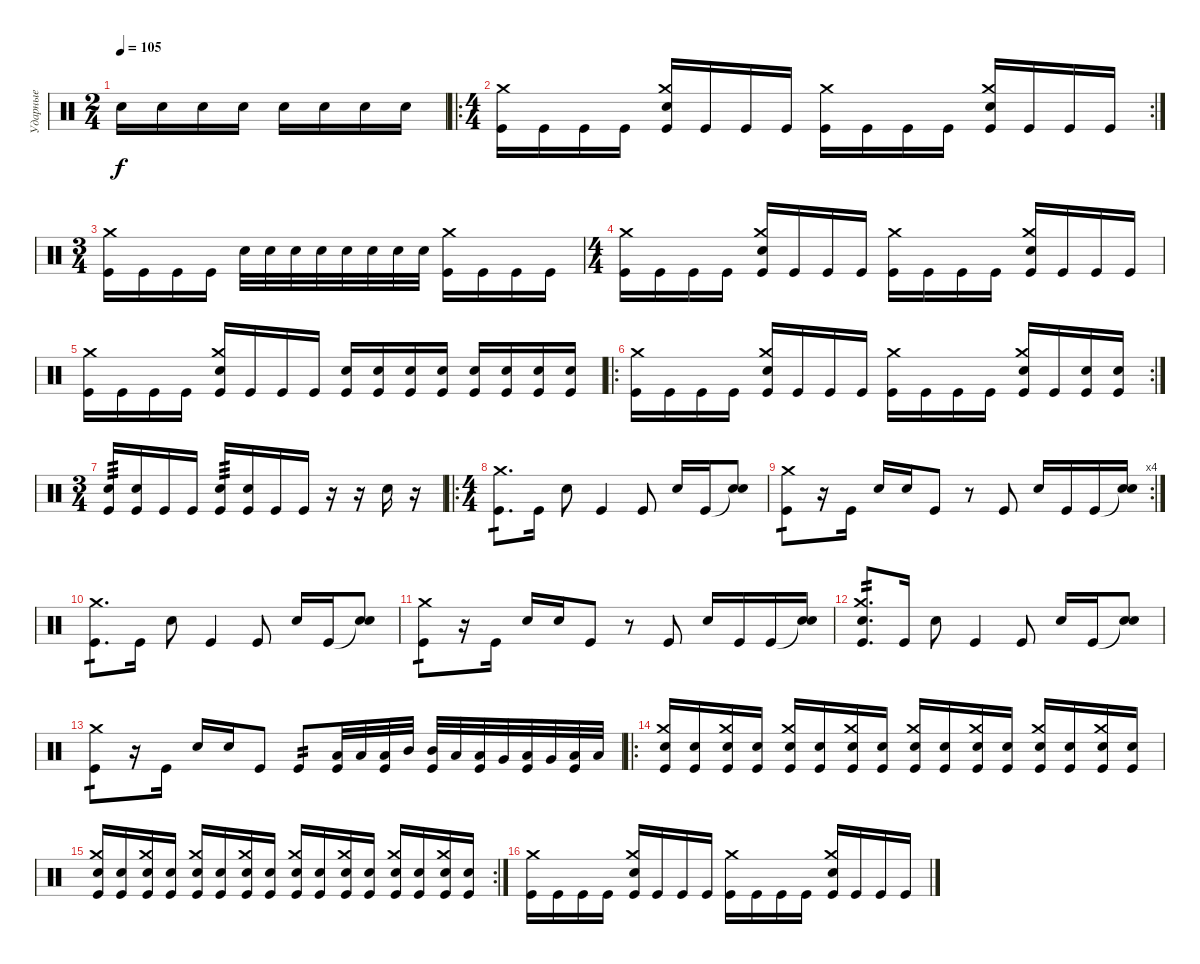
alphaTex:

\track ("Ударные" "Ударные") {instrument percussion}
\staff {score}
\articulation defaults
\ts (2 4)
\tempo 105
\clef neutral
\ks c "Electric Snare (hit)".16{dy f} "Electric Snare (hit)".16 "Electric Snare (hit)".16 "Electric Snare (hit)".16 "Electric Snare (hit)".16 "Electric Snare (hit)".16 "Electric Snare (hit)".16 "Electric Snare (hit)".16
|
\ro
\rc 2
\ts (4 4)
("Crash medium (hit)" "Kick (hit)").16 "Kick (hit)".16 "Kick (hit)".16 "Kick (hit)".16 ("Crash medium (hit)" "Electric Snare (hit)" "Kick (hit)").16 "Kick (hit)".16 "Kick (hit)".16 "Kick (hit)".16 ("Crash medium (hit)" "Kick (hit)").16 "Kick (hit)".16 "Kick (hit)".16 "Kick (hit)".16 ("Crash medium (hit)" "Electric Snare (hit)" "Kick (hit)").16 "Kick (hit)".16 "Kick (hit)".16 "Kick (hit)".16 |
\ts (3 4)
("Crash medium (hit)" "Kick (hit)").16 "Kick (hit)".16 "Kick (hit)".16 "Kick (hit)".16 "Electric Snare (hit)".32 "Electric Snare (hit)".32 "Electric Snare (hit)".32 "Electric Snare (hit)".32 "Snare (hit) 2".32 "Snare (hit) 2".32 "Snare (hit) 2".32 "Snare (hit) 2".32 ("Crash medium (hit)" "Kick (hit)").16 "Kick (hit)".16 "Kick (hit)".16 "Kick (hit)".16 |
\ts (4 4)
("Crash medium (hit)" "Kick (hit)").16 "Kick (hit)".16 "Kick (hit)".16 "Kick (hit)".16 ("Crash medium (hit)" "Electric Snare (hit)" "Kick (hit)").16 "Kick (hit)".16 "Kick (hit)".16 "Kick (hit)".16 ("Crash medium (hit)" "Kick (hit)").16 "Kick (hit)".16 "Kick (hit)".16 "Kick (hit)".16 ("Crash medium (hit)" "Electric Snare (hit)" "Kick (hit)").16 "Kick (hit)".16 "Kick (hit)".16 "Kick (hit)".16 |
("Crash medium (hit)" "Kick (hit)").16 "Kick (hit)".16 "Kick (hit)".16 "Kick (hit)".16 ("Crash medium (hit)" "Electric Snare (hit)" "Kick (hit)").16 "Kick (hit)".16 "Kick (hit)".16 "Kick (hit)".16 ("Electric Snare (hit)" "Kick (hit)").16 ("Electric Snare (hit)" "Kick (hit)").16 ("Electric Snare (hit)" "Kick (hit)").16 ("Electric Snare (hit)" "Kick (hit)").16 ("Electric Snare (hit)" "Kick (hit)").16 ("Electric Snare (hit)" "Kick (hit)").16 ("Electric Snare (hit)" "Kick (hit)").16 ("Electric Snare (hit)" "Kick (hit)").16 |
\ro
\rc 2
("Crash medium (hit)" "Kick (hit)").16 "Kick (hit)".16 "Kick (hit)".16 "Kick (hit)".16 ("Crash medium (hit)" "Electric Snare (hit)" "Kick (hit)").16 "Kick (hit)".16 "Kick (hit)".16 "Kick (hit)".16 ("Crash medium (hit)" "Kick (hit)").16 "Kick (hit)".16 "Kick (hit)".16 "Kick (hit)".16 ("Crash medium (hit)" "Electric Snare (hit)" "Kick (hit)").16 "Kick (hit)".16 ("Electric Snare (hit)" "Kick (hit)").16 ("Electric Snare (hit)" "Kick (hit)").16 |
\ts (3 4)
("Electric Snare (hit)" "Kick (hit)").16{tp 3} ("Electric Snare (hit)" "Kick (hit)").16 "Kick (hit)".16 "Kick (hit)".16 ("Electric Snare (hit)" "Kick (hit)").16{tp 3} ("Electric Snare (hit)" "Kick (hit)").16 "Kick (hit)".16 "Kick (hit)".16 r.16 r.16 "Electric Snare (hit)".16 r.16 |
\ro
\ts (4 4)
("Crash medium (hit)" "Kick (hit)").8{d tp 1} "Kick (hit)".16 "Electric Snare (hit)".8 "Kick (hit)".4 "Kick (hit)".8 "Electric Snare (hit)".16 "Kick (hit)".16 ("Snare (hit)"{t} "Electric Snare (hit)").8 |
\rc 4
("Crash medium (hit)" "Kick (hit)").8{tp 1} r.16 "Kick (hit)".16 "Electric Snare (hit)".16 "Electric Snare (hit)".16 "Kick (hit)".8 r.8 "Kick (hit)".8 "Electric Snare (hit)".16 "Kick (hit)".16 "Kick (hit)".16 ("Snare (hit)"{t} "Electric Snare (hit)").16 |
("Crash medium (hit)" "Kick (hit)").8{d tp 1} "Kick (hit)".16 "Electric Snare (hit)".8 "Kick (hit)".4 "Kick (hit)".8 "Electric Snare (hit)".16 "Kick (hit)".16 ("Snare (hit)"{t} "Electric Snare (hit)").8 |
("Crash medium (hit)" "Kick (hit)").8{tp 1} r.16 "Kick (hit)".16 "Electric Snare (hit)".16 "Electric Snare (hit)".16 "Kick (hit)".8 r.8 "Kick (hit)".8 "Electric Snare (hit)".16 "Kick (hit)".16 "Kick (hit)".16 ("Snare (hit)"{t} "Electric Snare (hit)").16 |
("Crash medium (hit)" "Electric Snare (hit)" "Kick (hit)").8{d tp 2} "Kick (hit)".16 "Electric Snare (hit)".8 "Kick (hit)".4 "Kick (hit)".8 "Electric Snare (hit)".16 "Kick (hit)".16 ("Snare (hit)"{t} "Electric Snare (hit)").8 |
("Crash medium (hit)" "Kick (hit)").8{tp 1} r.16 "Kick (hit)".16 "Electric Snare (hit)".16 "Electric Snare (hit)".16 "Kick (hit)".8 "Kick (hit)".8{tp 2} ("Low Tom (hit)" "Kick (hit)").32 "Low Tom (hit)".32 ("Low Tom (hit)" "Kick (hit)").32 "Mid Tom (hit)".32 ("Mid Tom (hit)" "Kick (hit)").32 "Low Tom (hit)".32 ("Low Tom (hit)" "Kick (hit)").32 "Very Low Tom (hit)".32 ("Low Floor Tom (hit)" "Kick (hit)").32 "Very Low Tom (hit)".32 ("Low Floor Tom (hit)" "Kick (hit)").32 "Low Floor Tom (hit)".32 |
\ro
("Crash medium (hit)" "Electric Snare (hit)" "Kick (hit)").16 ("Electric Snare (hit)" "Kick (hit)").16 ("Crash medium (hit)" "Electric Snare (hit)" "Kick (hit)").16 ("Electric Snare (hit)" "Kick (hit)").16 ("Crash medium (hit)" "Electric Snare (hit)" "Kick (hit)").16 ("Electric Snare (hit)" "Kick (hit)").16 ("Crash medium (hit)" "Electric Snare (hit)" "Kick (hit)").16 ("Electric Snare (hit)" "Kick (hit)").16 ("Crash medium (hit)" "Electric Snare (hit)" "Kick (hit)").16 ("Electric Snare (hit)" "Kick (hit)").16 ("Crash medium (hit)" "Electric Snare (hit)" "Kick (hit)").16 ("Electric Snare (hit)" "Kick (hit)").16 ("Crash medium (hit)" "Electric Snare (hit)" "Kick (hit)").16 ("Electric Snare (hit)" "Kick (hit)").16 ("Crash medium (hit)" "Electric Snare (hit)" "Kick (hit)").16 ("Electric Snare (hit)" "Kick (hit)").16 |
\rc 2
("Crash medium (hit)" "Electric Snare (hit)" "Kick (hit)").16 ("Electric Snare (hit)" "Kick (hit)").16 ("Crash medium (hit)" "Electric Snare (hit)" "Kick (hit)").16 ("Electric Snare (hit)" "Kick (hit)").16 ("Crash medium (hit)" "Electric Snare (hit)" "Kick (hit)").16 ("Electric Snare (hit)" "Kick (hit)").16 ("Crash medium (hit)" "Electric Snare (hit)" "Kick (hit)").16 ("Electric Snare (hit)" "Kick (hit)").16 ("Crash medium (hit)" "Electric Snare (hit)" "Kick (hit)").16 ("Electric Snare (hit)" "Kick (hit)").16 ("Crash medium (hit)" "Electric Snare (hit)" "Kick (hit)").16 ("Electric Snare (hit)" "Kick (hit)").16 ("Crash medium (hit)" "Electric Snare (hit)" "Kick (hit)").16 ("Electric Snare (hit)" "Kick (hit)").16 ("Crash medium (hit)" "Electric Snare (hit)" "Kick (hit)").16 ("Electric Snare (hit)" "Kick (hit)").16 |
("Crash medium (hit)" "Kick (hit)").16 "Kick (hit)".16 "Kick (hit)".16 "Kick (hit)".16 ("Crash medium (hit)" "Electric Snare (hit)" "Kick (hit)").16 "Kick (hit)".16 "Kick (hit)".16 "Kick (hit)".16 ("Crash medium (hit)" "Kick (hit)").16 "Kick (hit)".16 "Kick (hit)".16 "Kick (hit)".16 ("Crash medium (hit)" "Electric Snare (hit)" "Kick (hit)").16 "Kick (hit)".16 "Kick (hit)".16 "Kick (hit)".16
